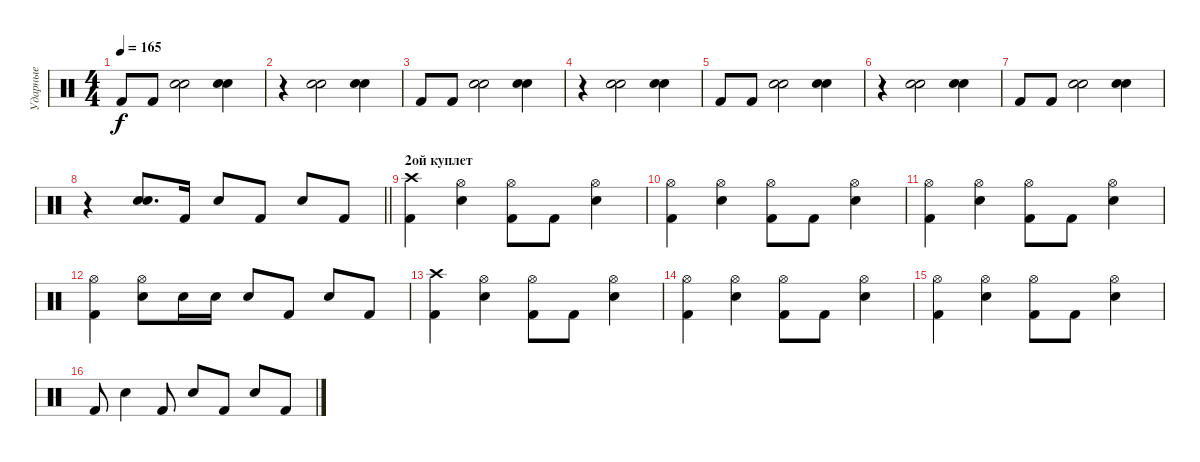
\track ("Ударные" "Ударные") {instrument percussion}
\staff {score}
\articulation defaults
\ts (4 4)
\tempo 165
\clef neutral
\ks c "Kick (hit) 2".8{dy f} "Kick (hit) 2".8
("Electric Snare (hit)" "Electric Snare (hit)").2{bu 60} ("Electric Snare (hit)" "Electric Snare (hit)").4{bu 60} |
r.4 ("Electric Snare (hit)" "Electric Snare (hit)").2{bu 60} ("Electric Snare (hit)" "Electric Snare (hit)").4{bu 60} |
"Kick (hit) 2".8 "Kick (hit) 2".8 ("Electric Snare (hit)" "Electric Snare (hit)").2{bu 60} ("Electric Snare (hit)" "Electric Snare (hit)").4{bu 60} |
r.4 ("Electric Snare (hit)" "Electric Snare (hit)").2{bu 60} ("Electric Snare (hit)" "Electric Snare (hit)").4{bu 60} |
"Kick (hit) 2".8 "Kick (hit) 2".8 ("Electric Snare (hit)" "Electric Snare (hit)").2{bu 60} ("Electric Snare (hit)" "Electric Snare (hit)").4{bu 60} |
r.4 ("Electric Snare (hit)" "Electric Snare (hit)").2{bu 60} ("Electric Snare (hit)" "Electric Snare (hit)").4{bu 60} |
"Kick (hit) 2".8 "Kick (hit) 2".8 ("Electric Snare (hit)" "Electric Snare (hit)").2{bu 60} ("Electric Snare (hit)" "Electric Snare (hit)").4{bu 60} |
\barLineRight lightlight
r.4 ("Electric Snare (hit)" "Electric Snare (hit)").8{d bu 60} "Kick (hit) 2".16 "Electric Snare (hit)".8 "Kick (hit) 2".8 "Electric Snare (hit)".8 "Kick (hit) 2".8 |
\section ("" "2ой куплет")
("Kick (hit) 2" "Crash high (hit)").4 ("Electric Snare (hit)" "Hi-Hat (open)").4 ("Kick (hit) 2" "Hi-Hat (open)").8 "Kick (hit) 2".8 ("Electric Snare (hit)" "Hi-Hat (open)").4 |
("Kick (hit) 2" "Hi-Hat (open)").4 ("Electric Snare (hit)" "Hi-Hat (open)").4 ("Kick (hit) 2" "Hi-Hat (open)").8 "Kick (hit) 2".8 ("Electric Snare (hit)" "Hi-Hat (open)").4 |
("Kick (hit) 2" "Hi-Hat (open)").4 ("Electric Snare (hit)" "Hi-Hat (open)").4 ("Kick (hit) 2" "Hi-Hat (open)").8 "Kick (hit) 2".8 ("Electric Snare (hit)" "Hi-Hat (open)").4 |
("Kick (hit) 2" "Hi-Hat (open)").4 ("Electric Snare (hit)" "Hi-Hat (open)").8 "Electric Snare (hit)".16 "Electric Snare (hit)".16 "Electric Snare (hit)".8 "Kick (hit) 2".8 "Electric Snare (hit)".8 "Kick (hit) 2".8 |
("Kick (hit) 2" "Crash high (hit)").4 ("Electric Snare (hit)" "Hi-Hat (open)").4 ("Kick (hit) 2" "Hi-Hat (open)").8 "Kick (hit) 2".8 ("Electric Snare (hit)" "Hi-Hat (open)").4 |
("Kick (hit) 2" "Hi-Hat (open)").4 ("Electric Snare (hit)" "Hi-Hat (open)").4 ("Kick (hit) 2" "Hi-Hat (open)").8 "Kick (hit) 2".8 ("Electric Snare (hit)" "Hi-Hat (open)").4 |
("Kick (hit) 2" "Hi-Hat (open)").4 ("Electric Snare (hit)" "Hi-Hat (open)").4 ("Kick (hit) 2" "Hi-Hat (open)").8 "Kick (hit) 2".8 ("Electric Snare (hit)" "Hi-Hat (open)").4 |
"Kick (hit) 2".8 "Electric Snare (hit)".4 "Kick (hit) 2".8 "Electric Snare (hit)".8 "Kick (hit) 2".8 "Electric Snare (hit)".8 "Kick (hit) 2".8
